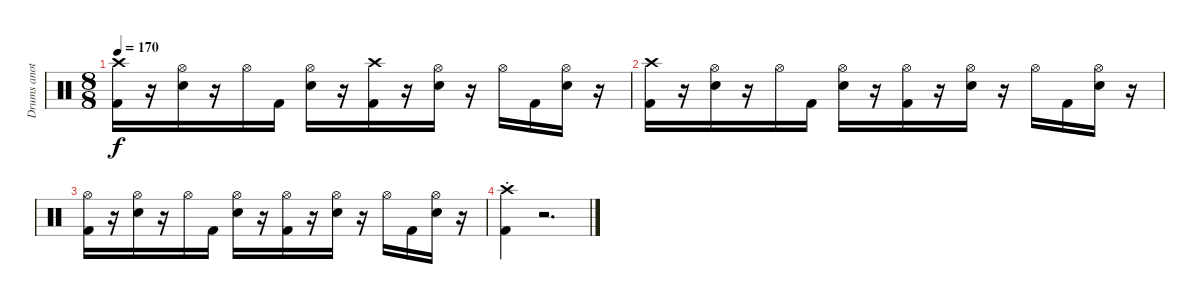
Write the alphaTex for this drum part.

\track ("Drums another version" "Drums anot") {mute instrument percussion}
\staff {score}
\articulation defaults
\ts (8 8)
\tempo 170
\clef neutral
\ks c
("Crash high (hit)" "Kick (hit) 2").16{dy f} r.16 ("Hi-Hat (open)" "Snare (hit) 2").16 r.16 "Hi-Hat (open)".16 "Kick (hit) 2".16 ("Hi-Hat (open)" "Snare (hit) 2").16 r.16 ("Crash high (hit)" "Kick (hit) 2").16 r.16 ("Hi-Hat (open)" "Snare (hit) 2").16 r.16 "Hi-Hat (open)".16 "Kick (hit) 2".16 ("Hi-Hat (open)" "Snare (hit) 2").16 r.16 |
("Crash high (hit)" "Kick (hit) 2").16 r.16 ("Hi-Hat (open)" "Snare (hit) 2").16 r.16 "Hi-Hat (open)".16 "Kick (hit) 2".16 ("Hi-Hat (open)" "Snare (hit) 2").16 r.16 ("Hi-Hat (open)" "Kick (hit) 2").16 r.16 ("Hi-Hat (open)" "Snare (hit) 2").16 r.16 "Hi-Hat (open)".16 "Kick (hit) 2".16 ("Hi-Hat (open)" "Snare (hit) 2").16 r.16 |
("Hi-Hat (open)" "Kick (hit) 2").16 r.16 ("Hi-Hat (open)" "Snare (hit) 2").16 r.16 "Hi-Hat (open)".16 "Kick (hit) 2".16 ("Hi-Hat (open)" "Snare (hit) 2").16 r.16 ("Hi-Hat (open)" "Kick (hit) 2").16 r.16 ("Hi-Hat (open)" "Snare (hit) 2").16 r.16 "Hi-Hat (open)".16 "Kick (hit) 2".16 ("Hi-Hat (open)" "Snare (hit) 2").16 r.16 |
("Crash high (hit)"{st} "Kick (hit) 2").4 r.2{d}
